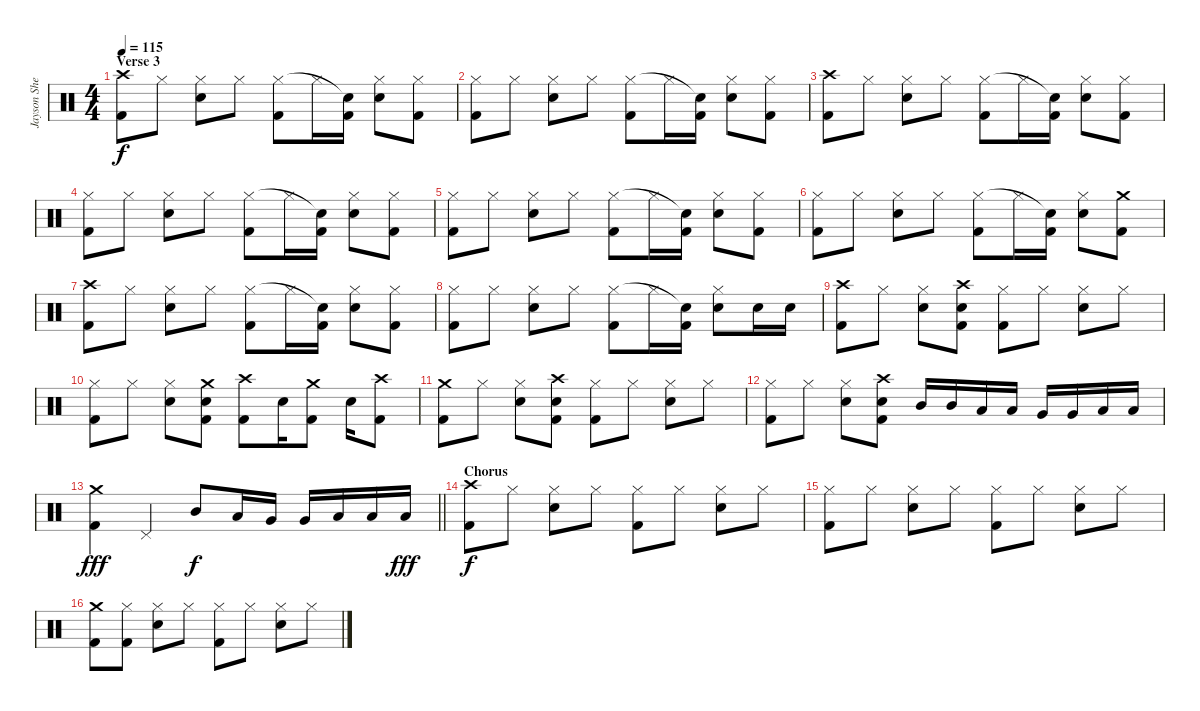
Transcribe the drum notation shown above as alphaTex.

\track ("Jayson Sherlock" "Jayson She") {instrument percussion}
\staff {score}
\articulation defaults
\ts (4 4)
\section ("" "Verse 3")
\tempo 115
\clef neutral
\ks c
("Kick (hit) 2" "Crash high (hit)").8{dy f} "Hi-Hat (closed)".8 ("Hi-Hat (closed)" "Snare (hit) 2").8 "Hi-Hat (closed)".8 ("Kick (hit) 2" "Hi-Hat (closed)").8 "Hi-Hat (closed)".16 ("Kick (hit) 2" "Snare (hit)"{t}).16 ("Hi-Hat (closed)" "Snare (hit) 2").8 ("Kick (hit) 2" "Hi-Hat (closed)").8 |
("Kick (hit) 2" "Hi-Hat (closed)").8 "Hi-Hat (closed)".8 ("Hi-Hat (closed)" "Snare (hit) 2").8 "Hi-Hat (closed)".8 ("Kick (hit) 2" "Hi-Hat (closed)").8 "Hi-Hat (closed)".16 ("Kick (hit) 2" "Snare (hit)"{t}).16 ("Hi-Hat (closed)" "Snare (hit) 2").8 ("Kick (hit) 2" "Hi-Hat (closed)").8 |
("Kick (hit) 2" "Crash high (hit)").8 "Hi-Hat (closed)".8 ("Hi-Hat (closed)" "Snare (hit) 2").8 "Hi-Hat (closed)".8 ("Kick (hit) 2" "Hi-Hat (closed)").8 "Hi-Hat (closed)".16 ("Kick (hit) 2" "Snare (hit)"{t}).16 ("Hi-Hat (closed)" "Snare (hit) 2").8 ("Kick (hit) 2" "Hi-Hat (closed)").8 |
("Kick (hit) 2" "Hi-Hat (closed)").8 "Hi-Hat (closed)".8 ("Hi-Hat (closed)" "Snare (hit) 2").8 "Hi-Hat (closed)".8 ("Kick (hit) 2" "Hi-Hat (closed)").8 "Hi-Hat (closed)".16 ("Kick (hit) 2" "Snare (hit)"{t}).16 ("Hi-Hat (closed)" "Snare (hit) 2").8 ("Kick (hit) 2" "Hi-Hat (closed)").8 |
("Kick (hit) 2" "Hi-Hat (closed)").8 "Hi-Hat (closed)".8 ("Hi-Hat (closed)" "Snare (hit) 2").8 "Hi-Hat (closed)".8 ("Kick (hit) 2" "Hi-Hat (closed)").8 "Hi-Hat (closed)".16 ("Kick (hit) 2" "Snare (hit)"{t}).16 ("Hi-Hat (closed)" "Snare (hit) 2").8 ("Kick (hit) 2" "Hi-Hat (closed)").8 |
("Kick (hit) 2" "Hi-Hat (closed)").8 "Hi-Hat (closed)".8 ("Hi-Hat (closed)" "Snare (hit) 2").8 "Hi-Hat (closed)".8 ("Kick (hit) 2" "Hi-Hat (closed)").8 "Hi-Hat (closed)".16 ("Kick (hit) 2" "Snare (hit)"{t}).16 ("Hi-Hat (closed)" "Snare (hit) 2").8 ("Kick (hit) 2" "Crash medium (hit)").8 |
("Kick (hit) 2" "Crash high (hit)").8 "Hi-Hat (closed)".8 ("Hi-Hat (closed)" "Snare (hit) 2").8 "Hi-Hat (closed)".8 ("Kick (hit) 2" "Hi-Hat (closed)").8 "Hi-Hat (closed)".16 ("Kick (hit) 2" "Snare (hit)"{t}).16 ("Hi-Hat (closed)" "Snare (hit) 2").8 ("Kick (hit) 2" "Hi-Hat (closed)").8 |
("Kick (hit) 2" "Hi-Hat (closed)").8 "Hi-Hat (closed)".8 ("Hi-Hat (closed)" "Snare (hit) 2").8 "Hi-Hat (closed)".8 ("Kick (hit) 2" "Hi-Hat (closed)").8 "Hi-Hat (closed)".16 ("Kick (hit) 2" "Snare (hit)"{t}).16 ("Hi-Hat (closed)" "Snare (hit) 2").8 "Snare (hit) 2".16 "Snare (hit) 2".16 |
("Kick (hit) 2" "Crash high (hit)").8 "Hi-Hat (closed)".8 ("Hi-Hat (closed)" "Snare (hit) 2").8 ("Kick (hit) 2" "Snare (hit) 2" "Crash high (hit)").8 ("Kick (hit) 2" "Hi-Hat (closed)").8 "Hi-Hat (closed)".8 ("Hi-Hat (closed)" "Snare (hit) 2").8 "Hi-Hat (closed)".8 |
("Kick (hit) 2" "Hi-Hat (closed)").8 "Hi-Hat (closed)".8 ("Hi-Hat (closed)" "Snare (hit) 2").8 ("Kick (hit) 2" "Snare (hit) 2" "Crash medium (hit)").8 ("Kick (hit) 2" "Crash high (hit)").8 "Snare (hit) 2".16 ("Kick (hit) 2" "Crash medium (hit)").8 "Snare (hit) 2".16 ("Kick (hit) 2" "Crash high (hit)").8 |
("Kick (hit) 2" "Crash medium (hit)").8 "Hi-Hat (closed)".8 ("Hi-Hat (closed)" "Snare (hit) 2").8 ("Kick (hit) 2" "Snare (hit) 2" "Crash high (hit)").8 ("Kick (hit) 2" "Hi-Hat (closed)").8 "Hi-Hat (closed)".8 ("Hi-Hat (closed)" "Snare (hit) 2").8 "Hi-Hat (closed)".8 |
("Kick (hit) 2" "Hi-Hat (closed)").8 "Hi-Hat (closed)".8 ("Hi-Hat (closed)" "Snare (hit) 2").8 ("Kick (hit) 2" "Snare (hit) 2" "Crash high (hit)").8 "Mid Tom (hit)".16 "Mid Tom (hit)".16 "Low Tom (hit)".16 "Low Tom (hit)".16 "Very Low Tom (hit)".16 "Very Low Tom (hit)".16 "Low Floor Tom (hit)".16 "Low Floor Tom (hit)".16 |
\barLineRight lightlight
("Kick (hit) 2" "Crash medium (hit)").4{dy fff} "Pedal Hi-Hat (hit)".4 "Mid Tom (hit)".8{dy f} "Low Tom (hit)".16 "Very Low Tom (hit)".16 "Very Low Tom (hit)".16 "Low Floor Tom (hit)".16 "Low Floor Tom (hit)".16 "Low Floor Tom (hit)".16{dy fff} |
\section ("" "Chorus")
("Kick (hit) 2" "Crash high (hit)").8{dy f} "Hi-Hat (closed)".8 ("Hi-Hat (closed)" "Snare (hit) 2").8 "Hi-Hat (closed)".8 ("Kick (hit) 2" "Hi-Hat (closed)").8 "Hi-Hat (closed)".8 ("Hi-Hat (closed)" "Snare (hit) 2").8 "Hi-Hat (closed)".8 |
("Kick (hit) 2" "Hi-Hat (closed)").8 "Hi-Hat (closed)".8 ("Hi-Hat (closed)" "Snare (hit) 2").8 "Hi-Hat (closed)".8 ("Kick (hit) 2" "Hi-Hat (closed)").8 "Hi-Hat (closed)".8 ("Hi-Hat (closed)" "Snare (hit) 2").8 "Hi-Hat (closed)".8 |
("Kick (hit) 2" "Crash medium (hit)").8 ("Kick (hit) 2" "Hi-Hat (closed)").8 ("Hi-Hat (closed)" "Snare (hit) 2").8 "Hi-Hat (closed)".8 ("Kick (hit) 2" "Hi-Hat (closed)").8 "Hi-Hat (closed)".8 ("Hi-Hat (closed)" "Snare (hit) 2").8 "Hi-Hat (closed)".8
